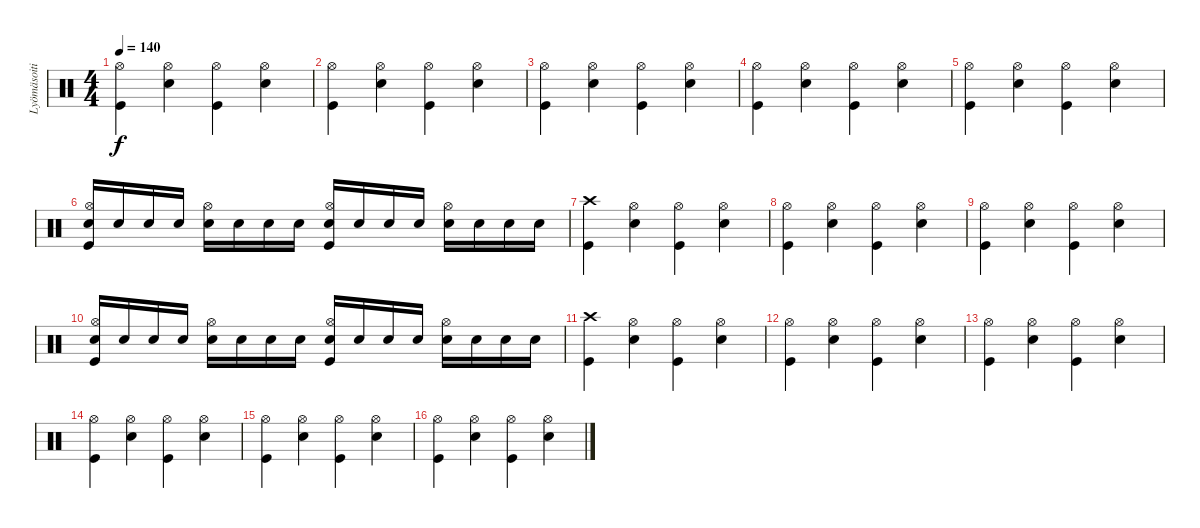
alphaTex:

\track ("Lyömäsoitin" "Lyömäsoiti") {instrument percussion}
\staff {score}
\articulation defaults
\ts (4 4)
\tempo 140
\clef neutral
\ks c
("Kick (hit)" "Hi-Hat (open)").4{dy f} ("Electric Snare (hit)" "Hi-Hat (open)").4 ("Kick (hit)" "Hi-Hat (open)").4 ("Electric Snare (hit)" "Hi-Hat (open)").4 |
("Kick (hit)" "Hi-Hat (open)").4 ("Electric Snare (hit)" "Hi-Hat (open)").4 ("Kick (hit)" "Hi-Hat (open)").4 ("Electric Snare (hit)" "Hi-Hat (open)").4 |
("Kick (hit)" "Hi-Hat (open)").4 ("Electric Snare (hit)" "Hi-Hat (open)").4 ("Kick (hit)" "Hi-Hat (open)").4 ("Electric Snare (hit)" "Hi-Hat (open)").4 |
("Kick (hit)" "Hi-Hat (open)").4 ("Electric Snare (hit)" "Hi-Hat (open)").4 ("Kick (hit)" "Hi-Hat (open)").4 ("Electric Snare (hit)" "Hi-Hat (open)").4 |
("Kick (hit)" "Hi-Hat (open)").4 ("Electric Snare (hit)" "Hi-Hat (open)").4 ("Kick (hit)" "Hi-Hat (open)").4 ("Electric Snare (hit)" "Hi-Hat (open)").4 |
("Kick (hit)" "Electric Snare (hit)" "Hi-Hat (open)").16 "Electric Snare (hit)".16 "Electric Snare (hit)".16 "Electric Snare (hit)".16 ("Electric Snare (hit)" "Hi-Hat (open)").16 "Electric Snare (hit)".16 "Electric Snare (hit)".16 "Electric Snare (hit)".16 ("Kick (hit)" "Electric Snare (hit)" "Hi-Hat (open)").16 "Electric Snare (hit)".16 "Electric Snare (hit)".16 "Electric Snare (hit)".16 ("Electric Snare (hit)" "Hi-Hat (open)").16 "Electric Snare (hit)".16 "Electric Snare (hit)".16 "Electric Snare (hit)".16 |
("Kick (hit)" "Crash high (hit)").4 ("Electric Snare (hit)" "Hi-Hat (open)").4 ("Kick (hit)" "Hi-Hat (open)").4 ("Electric Snare (hit)" "Hi-Hat (open)").4 |
("Kick (hit)" "Hi-Hat (open)").4 ("Electric Snare (hit)" "Hi-Hat (open)").4 ("Kick (hit)" "Hi-Hat (open)").4 ("Electric Snare (hit)" "Hi-Hat (open)").4 |
("Kick (hit)" "Hi-Hat (open)").4 ("Electric Snare (hit)" "Hi-Hat (open)").4 ("Kick (hit)" "Hi-Hat (open)").4 ("Electric Snare (hit)" "Hi-Hat (open)").4 |
("Kick (hit)" "Electric Snare (hit)" "Hi-Hat (open)").16 "Electric Snare (hit)".16 "Electric Snare (hit)".16 "Electric Snare (hit)".16 ("Electric Snare (hit)" "Hi-Hat (open)").16 "Electric Snare (hit)".16 "Electric Snare (hit)".16 "Electric Snare (hit)".16 ("Kick (hit)" "Electric Snare (hit)" "Hi-Hat (open)").16 "Electric Snare (hit)".16 "Electric Snare (hit)".16 "Electric Snare (hit)".16 ("Electric Snare (hit)" "Hi-Hat (open)").16 "Electric Snare (hit)".16 "Electric Snare (hit)".16 "Electric Snare (hit)".16 |
("Kick (hit)" "Crash high (hit)").4 ("Electric Snare (hit)" "Hi-Hat (open)").4 ("Kick (hit)" "Hi-Hat (open)").4 ("Electric Snare (hit)" "Hi-Hat (open)").4 |
("Kick (hit)" "Hi-Hat (open)").4 ("Electric Snare (hit)" "Hi-Hat (open)").4 ("Kick (hit)" "Hi-Hat (open)").4 ("Electric Snare (hit)" "Hi-Hat (open)").4 |
("Kick (hit)" "Hi-Hat (open)").4 ("Electric Snare (hit)" "Hi-Hat (open)").4 ("Kick (hit)" "Hi-Hat (open)").4 ("Electric Snare (hit)" "Hi-Hat (open)").4 |
("Kick (hit)" "Hi-Hat (open)").4 ("Electric Snare (hit)" "Hi-Hat (open)").4 ("Kick (hit)" "Hi-Hat (open)").4 ("Electric Snare (hit)" "Hi-Hat (open)").4 |
("Kick (hit)" "Hi-Hat (open)").4 ("Electric Snare (hit)" "Hi-Hat (open)").4 ("Kick (hit)" "Hi-Hat (open)").4 ("Electric Snare (hit)" "Hi-Hat (open)").4 |
("Kick (hit)" "Hi-Hat (open)").4 ("Electric Snare (hit)" "Hi-Hat (open)").4 ("Kick (hit)" "Hi-Hat (open)").4 ("Electric Snare (hit)" "Hi-Hat (open)").4
